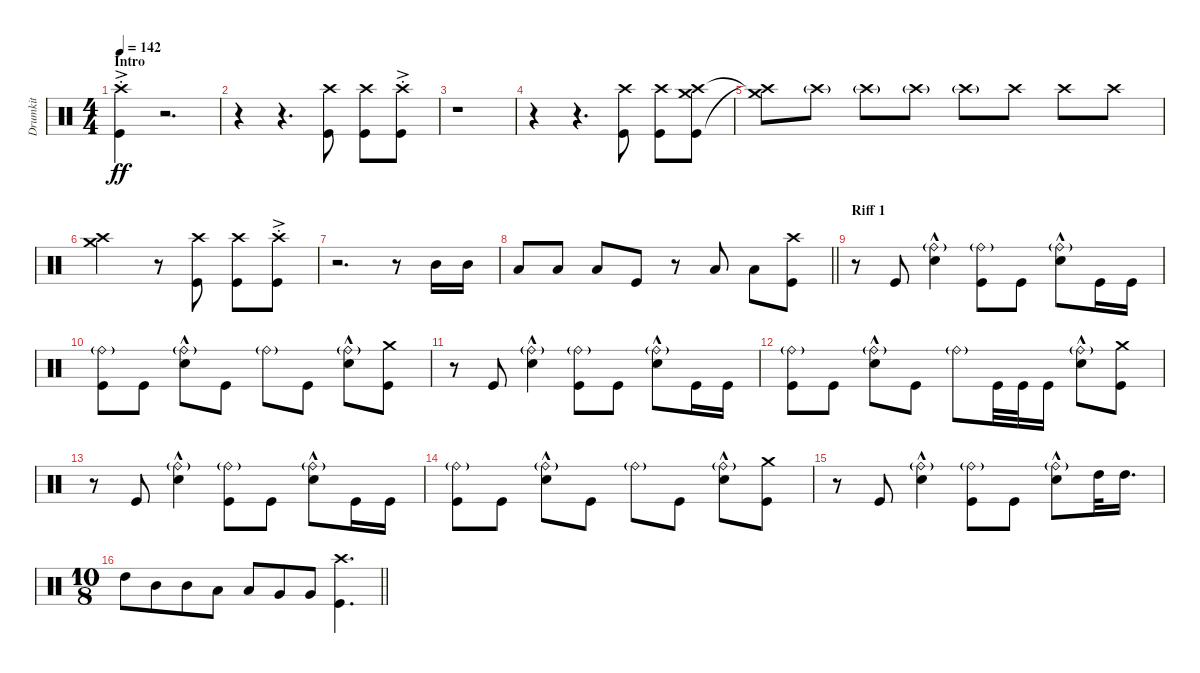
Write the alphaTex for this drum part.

\track ("Drumkit" "Drumkit") {instrument percussion}
\staff {score}
\articulation defaults
\ts (4 4)
\section ("" "Intro")
\tempo 142
\clef neutral
\ks c
("Kick (hit)" "Crash high (hit)"{ac st}).4{dy ff} r.2{d} |
r.4 r.4{d} ("Kick (hit)" "Crash high (hit)").8 ("Kick (hit)" "Crash high (hit)").8 ("Kick (hit)" "Crash high (hit)"{ac st}).8 |
r.1 |
r.4 r.4{d} ("Kick (hit)" "Crash high (hit)").8 ("Kick (hit)" "Crash high (hit)").8 ("Kick (hit)" "Crash high (hit)" "Crash medium (hit)").8 |
("Crash high (hit)"{t} "Crash medium (hit)"{t}).8 "Crash high (hit)"{g}.8 "Crash high (hit)"{g}.8 "Crash high (hit)"{g}.8 "Crash high (hit)"{g}.8 "Crash high (hit)".8 "Crash high (hit)".8 "Crash high (hit)".8 |
("Crash high (hit)" "Crash medium (hit)").2 r.8 ("Kick (hit)" "Crash high (hit)").8 ("Kick (hit)" "Crash high (hit)").8 ("Kick (hit)" "Crash high (hit)"{ac st}).8 |
r.2{d} r.8 "Mid Tom (hit)".16 "Mid Tom (hit)".16 |
\barLineRight lightlight "Low Tom (hit)".8 "Low Tom (hit)".8 "Low Tom (hit)".8 "Kick (hit)".8
r.8 "Low Tom (hit)".8 "Low Tom (hit)".8 ("Kick (hit)" "Crash high (hit)").8 |
\section ("" "Riff 1")
r.8 "Kick (hit)".8 ("Snare (hit) 2"{hac} "Ride (bell)"{g}).4 ("Kick (hit)" "Ride (bell)"{g}).8 "Kick (hit)".8 ("Snare (hit) 2"{hac} "Ride (bell)"{g}).8 "Kick (hit)".16 "Kick (hit)".16 |
("Ride (bell)"{g} "Kick (hit)").8 "Kick (hit)".8 ("Snare (hit) 2"{hac} "Ride (bell)"{g}).8 "Kick (hit)".8 "Ride (bell)"{g}.8 "Kick (hit)".8 ("Snare (hit) 2"{hac} "Ride (bell)"{g}).8 ("Kick (hit)" "Crash medium (hit)").8 |
r.8 "Kick (hit)".8 ("Snare (hit) 2"{hac} "Ride (bell)"{g}).4 ("Kick (hit)" "Ride (bell)"{g}).8 "Kick (hit)".8 ("Snare (hit) 2"{hac} "Ride (bell)"{g}).8 "Kick (hit)".16 "Kick (hit)".16 |
("Ride (bell)"{g} "Kick (hit)").8 "Kick (hit)".8 ("Snare (hit) 2"{hac} "Ride (bell)"{g}).8 "Kick (hit)".8 "Ride (bell)"{g}.8 "Kick (hit)".32 "Kick (hit)".32 "Kick (hit)".16 ("Snare (hit) 2"{hac} "Ride (bell)"{g}).8 ("Kick (hit)" "Crash medium (hit)").8 |
r.8 "Kick (hit)".8 ("Snare (hit) 2"{hac} "Ride (bell)"{g}).4 ("Kick (hit)" "Ride (bell)"{g}).8 "Kick (hit)".8 ("Snare (hit) 2"{hac} "Ride (bell)"{g}).8 "Kick (hit)".16 "Kick (hit)".16 |
("Ride (bell)"{g} "Kick (hit)").8 "Kick (hit)".8 ("Snare (hit) 2"{hac} "Ride (bell)"{g}).8 "Kick (hit)".8 "Ride (bell)"{g}.8 "Kick (hit)".8 ("Snare (hit) 2"{hac} "Ride (bell)"{g}).8 ("Kick (hit)" "Crash medium (hit)").8 |
r.8 "Kick (hit)".8 ("Snare (hit) 2"{hac} "Ride (bell)"{g}).4 ("Kick (hit)" "Ride (bell)"{g}).8 "Kick (hit)".8 ("Snare (hit) 2"{hac} "Ride (bell)"{g}).8 "High Tom (hit)".32 "High Tom (hit)".16{d} |
\ts (10 8)
\barLineRight lightlight "High Tom (hit)".8 "Mid Tom (hit)".8 "Mid Tom (hit)".8 "Low Tom (hit)".8 "Low Tom (hit)".8 "Very Low Tom (hit)".8 "Very Low Tom (hit)".8
("Kick (hit)" "Crash high (hit)").4{d}
